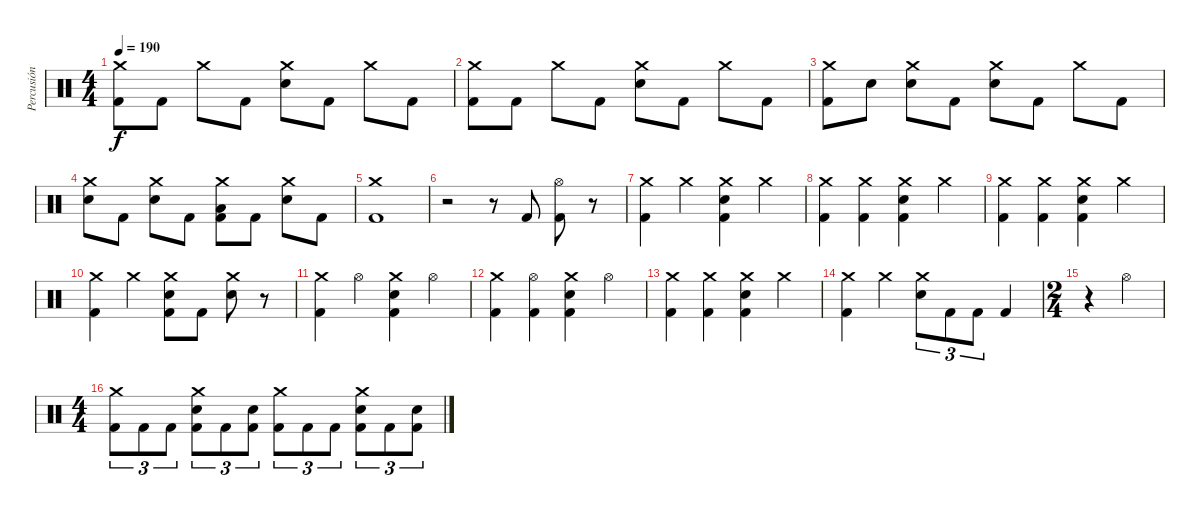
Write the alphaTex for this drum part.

\track ("Percusión" "Percusión") {instrument percussion}
\staff {score}
\articulation defaults
\ts (4 4)
\tempo 190
\clef neutral
\ks c
("Crash medium (hit)" "Kick (hit) 2").8{dy f} "Kick (hit) 2".8 "Crash medium (hit)".8 "Kick (hit) 2".8 ("Crash medium (hit)" "Electric Snare (hit)").8 "Kick (hit) 2".8 "Crash medium (hit)".8 "Kick (hit) 2".8 |
("Crash medium (hit)" "Kick (hit) 2").8 "Kick (hit) 2".8 "Crash medium (hit)".8 "Kick (hit) 2".8 ("Crash medium (hit)" "Electric Snare (hit)").8 "Kick (hit) 2".8 "Crash medium (hit)".8 "Kick (hit) 2".8 |
("Crash medium (hit)" "Kick (hit) 2").8 "Electric Snare (hit)".8 ("Crash medium (hit)" "Electric Snare (hit)").8 "Kick (hit) 2".8 ("Crash medium (hit)" "Electric Snare (hit)").8 "Kick (hit) 2".8 "Crash medium (hit)".8 "Kick (hit) 2".8 |
("Crash medium (hit)" "Electric Snare (hit)").8 "Kick (hit) 2".8 ("Crash medium (hit)" "Electric Snare (hit)").8 "Kick (hit) 2".8 ("Crash medium (hit)" "Low Floor Tom (hit)" "Kick (hit) 2").8 "Kick (hit) 2".8 ("Crash medium (hit)" "Electric Snare (hit)").8 "Kick (hit) 2".8 |
("Crash medium (hit)" "Kick (hit) 2").1 |
r.2 r.8 "Kick (hit) 2".8 ("Hi-Hat (open)" "Kick (hit) 2").8 r.8 |
("Crash medium (hit)" "Kick (hit) 2").4 "Crash medium (hit)".4 ("Crash medium (hit)" "Electric Snare (hit)" "Kick (hit) 2").4 "Crash medium (hit)".4 |
("Crash medium (hit)" "Kick (hit) 2").4 ("Crash medium (hit)" "Kick (hit) 2").4 ("Crash medium (hit)" "Electric Snare (hit)" "Kick (hit) 2").4 "Crash medium (hit)".4 |
("Crash medium (hit)" "Kick (hit) 2").4 ("Crash medium (hit)" "Kick (hit) 2").4 ("Crash medium (hit)" "Electric Snare (hit)" "Kick (hit) 2").4 "Crash medium (hit)".4 |
("Crash medium (hit)" "Kick (hit) 2").4 "Crash medium (hit)".4 ("Crash medium (hit)" "Electric Snare (hit)" "Kick (hit) 2").8 "Kick (hit) 2".8 ("Crash medium (hit)" "Electric Snare (hit)").8 r.8 |
("Crash medium (hit)" "Kick (hit) 2").4 "Hi-Hat (open)".4 ("Crash medium (hit)" "Electric Snare (hit)" "Kick (hit) 2").4 "Hi-Hat (open)".4 |
("Crash medium (hit)" "Kick (hit) 2").4 ("Hi-Hat (open)" "Kick (hit) 2").4 ("Crash medium (hit)" "Electric Snare (hit)" "Kick (hit) 2").4 "Hi-Hat (open)".4 |
("Crash medium (hit)" "Kick (hit) 2").4 ("Crash medium (hit)" "Kick (hit) 2").4 ("Crash medium (hit)" "Electric Snare (hit)" "Kick (hit) 2").4 "Crash medium (hit)".4 |
("Crash medium (hit)" "Kick (hit) 2").4 "Crash medium (hit)".4 ("Crash medium (hit)" "Electric Snare (hit)").8{tu (3 2)} "Kick (hit) 2".8{tu (3 2)} "Kick (hit) 2".8{tu (3 2)} "Kick (hit) 2".4 |
\ts (2 4)
r.4 "Hi-Hat (open)".4 |
\ts (4 4)
("Crash medium (hit)" "Kick (hit) 2").8{tu (3 2)} "Kick (hit) 2".8{tu (3 2)} "Kick (hit) 2".8{tu (3 2)} ("Crash medium (hit)" "Electric Snare (hit)" "Kick (hit) 2").8{tu (3 2)} "Kick (hit) 2".8{tu (3 2)} ("Electric Snare (hit)" "Kick (hit) 2").8{tu (3 2)} ("Crash medium (hit)" "Kick (hit) 2").8{tu (3 2)} "Kick (hit) 2".8{tu (3 2)} "Kick (hit) 2".8{tu (3 2)} ("Crash medium (hit)" "Electric Snare (hit)" "Kick (hit) 2").8{tu (3 2)} "Kick (hit) 2".8{tu (3 2)} ("Electric Snare (hit)" "Kick (hit) 2").8{tu (3 2)}
